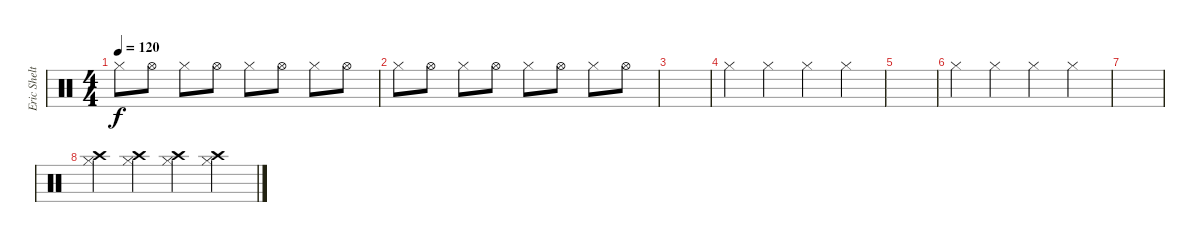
\track ("Eric Shelton" "Eric Shelt") {instrument percussion}
\staff {score}
\articulation defaults
\ts (4 4)
\tempo 120
\clef neutral
\ks c "Hi-Hat (closed)".8{dy f} "Hi-Hat (open)".8 "Hi-Hat (closed)".8 "Hi-Hat (open)".8 "Hi-Hat (closed)".8 "Hi-Hat (open)".8 "Hi-Hat (closed)".8 "Hi-Hat (open)".8
|
"Hi-Hat (closed)".8 "Hi-Hat (open)".8 "Hi-Hat (closed)".8 "Hi-Hat (open)".8 "Hi-Hat (closed)".8 "Hi-Hat (open)".8 "Hi-Hat (closed)".8 "Hi-Hat (open)".8 |
|
"Hi-Hat (closed)".4 "Hi-Hat (closed)".4 "Hi-Hat (closed)".4 "Hi-Hat (closed)".4 |
|
"Hi-Hat (closed)".4 "Hi-Hat (closed)".4 "Hi-Hat (closed)".4 "Hi-Hat (closed)".4 |
|
("Crash high (hit)" "Hi-Hat (closed)").4 ("Crash high (hit)" "Hi-Hat (closed)").4 ("Crash high (hit)" "Hi-Hat (closed)").4 ("Crash high (hit)" "Hi-Hat (closed)").4
